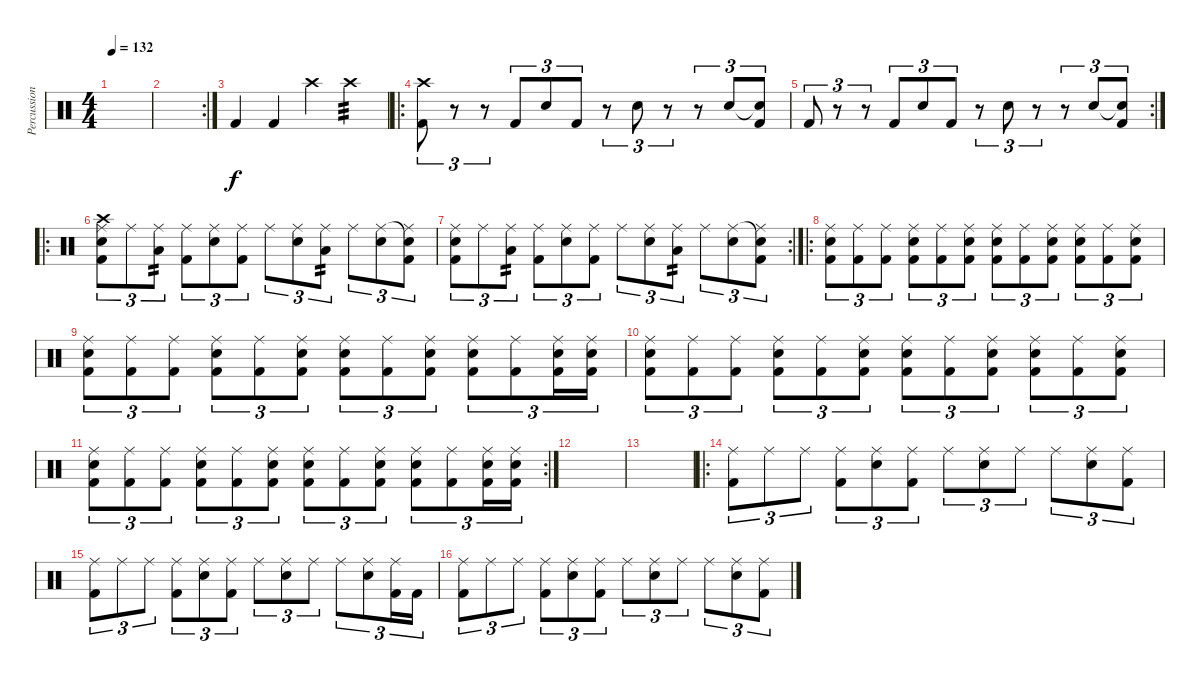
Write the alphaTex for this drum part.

\track ("Percussions" "Percussion") {instrument percussion}
\staff {score}
\articulation defaults
\ts (4 4)
\tempo 132
\clef neutral
\ks c
|
\rc 2
|
"Kick (hit) 2".4 "Kick (hit) 2".4 "Crash high (hit)".4 "Crash high (hit)".4{tp 3} |
\ro
("Crash high (hit)" "Kick (hit) 2").8{tu (3 2)} r.8{tu (3 2)} r.8{tu (3 2)} "Kick (hit) 2".8{tu (3 2)} "Snare (hit) 2".8{tu (3 2)} "Kick (hit) 2".8{tu (3 2)} r.8{tu (3 2)} "Snare (hit) 2".8{tu (3 2)} r.8{tu (3 2)} r.8{tu (3 2)} "Snare (hit) 2".8{tu (3 2)} ("Snare (hit)"{t} "Kick (hit) 2").8{tu (3 2)} |
\rc 2 "Kick (hit) 2".8{tu (3 2)}
r.8{tu (3 2)} r.8{tu (3 2)} "Kick (hit) 2".8{tu (3 2)} "Snare (hit) 2".8{tu (3 2)} "Kick (hit) 2".8{tu (3 2)} r.8{tu (3 2)} "Snare (hit) 2".8{tu (3 2)} r.8{tu (3 2)} r.8{tu (3 2)} "Snare (hit) 2".8{tu (3 2)} ("Snare (hit)"{t} "Kick (hit) 2").8{tu (3 2)} |
\ro
("Crash high (hit)" "Ride (middle)" "Snare (hit) 2" "Kick (hit) 2").8{tu (3 2)} "Ride (middle)".8{tu (3 2)} ("Ride (middle)" "Low Floor Tom (hit)").8{tu (3 2) tp 2} ("Ride (middle)" "Kick (hit) 2").8{tu (3 2)} ("Ride (middle)" "Snare (hit) 2").8{tu (3 2)} ("Ride (middle)" "Kick (hit) 2").8{tu (3 2)} "Ride (middle)".8{tu (3 2)} ("Ride (middle)" "Snare (hit) 2").8{tu (3 2)} ("Ride (middle)" "Low Floor Tom (hit)").8{tu (3 2) tp 2} "Ride (middle)".8{tu (3 2)} ("Ride (middle)" "Snare (hit) 2").8{tu (3 2)} ("Snare (hit)"{t} "Ride (middle)" "Kick (hit) 2").8{tu (3 2)} |
\rc 2
("Ride (middle)" "Snare (hit) 2" "Kick (hit) 2").8{tu (3 2)} "Ride (middle)".8{tu (3 2)} ("Ride (middle)" "Low Floor Tom (hit)").8{tu (3 2) tp 2} ("Ride (middle)" "Kick (hit) 2").8{tu (3 2)} ("Ride (middle)" "Snare (hit) 2").8{tu (3 2)} ("Ride (middle)" "Kick (hit) 2").8{tu (3 2)} "Ride (middle)".8{tu (3 2)} ("Ride (middle)" "Snare (hit) 2").8{tu (3 2)} ("Ride (middle)" "Low Floor Tom (hit)").8{tu (3 2) tp 2} "Ride (middle)".8{tu (3 2)} ("Ride (middle)" "Snare (hit) 2").8{tu (3 2)} ("Snare (hit)"{t} "Ride (middle)" "Kick (hit) 2").8{tu (3 2)} |
\ro
("Ride (middle)" "Snare (hit) 2" "Kick (hit) 2").8{tu (3 2)} ("Ride (middle)" "Kick (hit) 2").8{tu (3 2)} ("Ride (middle)" "Kick (hit) 2").8{tu (3 2)} ("Ride (middle)" "Snare (hit) 2" "Kick (hit) 2").8{tu (3 2)} ("Ride (middle)" "Kick (hit) 2").8{tu (3 2)} ("Ride (middle)" "Snare (hit) 2" "Kick (hit) 2").8{tu (3 2)} ("Ride (middle)" "Snare (hit) 2" "Kick (hit) 2").8{tu (3 2)} ("Ride (middle)" "Kick (hit) 2").8{tu (3 2)} ("Ride (middle)" "Snare (hit) 2" "Kick (hit) 2").8{tu (3 2)} ("Ride (middle)" "Snare (hit) 2" "Kick (hit) 2").8{tu (3 2)} ("Ride (middle)" "Kick (hit) 2").8{tu (3 2)} ("Ride (middle)" "Snare (hit) 2" "Kick (hit) 2").8{tu (3 2)} |
("Ride (middle)" "Snare (hit) 2" "Kick (hit) 2").8{tu (3 2)} ("Ride (middle)" "Kick (hit) 2").8{tu (3 2)} ("Ride (middle)" "Kick (hit) 2").8{tu (3 2)} ("Ride (middle)" "Snare (hit) 2" "Kick (hit) 2").8{tu (3 2)} ("Ride (middle)" "Kick (hit) 2").8{tu (3 2)} ("Ride (middle)" "Snare (hit) 2" "Kick (hit) 2").8{tu (3 2)} ("Ride (middle)" "Snare (hit) 2" "Kick (hit) 2").8{tu (3 2)} ("Ride (middle)" "Kick (hit) 2").8{tu (3 2)} ("Ride (middle)" "Snare (hit) 2" "Kick (hit) 2").8{tu (3 2)} ("Ride (middle)" "Snare (hit) 2" "Kick (hit) 2").8{tu (3 2)} ("Ride (middle)" "Kick (hit) 2").8{tu (3 2)} ("Ride (middle)" "Snare (hit) 2" "Kick (hit) 2").16{tu (3 2)} ("Ride (middle)" "Snare (hit) 2" "Kick (hit) 2").16{tu (3 2)} |
("Ride (middle)" "Snare (hit) 2" "Kick (hit) 2").8{tu (3 2)} ("Ride (middle)" "Kick (hit) 2").8{tu (3 2)} ("Ride (middle)" "Kick (hit) 2").8{tu (3 2)} ("Ride (middle)" "Snare (hit) 2" "Kick (hit) 2").8{tu (3 2)} ("Ride (middle)" "Kick (hit) 2").8{tu (3 2)} ("Ride (middle)" "Snare (hit) 2" "Kick (hit) 2").8{tu (3 2)} ("Ride (middle)" "Snare (hit) 2" "Kick (hit) 2").8{tu (3 2)} ("Ride (middle)" "Kick (hit) 2").8{tu (3 2)} ("Ride (middle)" "Snare (hit) 2" "Kick (hit) 2").8{tu (3 2)} ("Ride (middle)" "Snare (hit) 2" "Kick (hit) 2").8{tu (3 2)} ("Ride (middle)" "Kick (hit) 2").8{tu (3 2)} ("Ride (middle)" "Snare (hit) 2" "Kick (hit) 2").8{tu (3 2)} |
\rc 2
("Ride (middle)" "Snare (hit) 2" "Kick (hit) 2").8{tu (3 2)} ("Ride (middle)" "Kick (hit) 2").8{tu (3 2)} ("Ride (middle)" "Kick (hit) 2").8{tu (3 2)} ("Ride (middle)" "Snare (hit) 2" "Kick (hit) 2").8{tu (3 2)} ("Ride (middle)" "Kick (hit) 2").8{tu (3 2)} ("Ride (middle)" "Snare (hit) 2" "Kick (hit) 2").8{tu (3 2)} ("Ride (middle)" "Snare (hit) 2" "Kick (hit) 2").8{tu (3 2)} ("Ride (middle)" "Kick (hit) 2").8{tu (3 2)} ("Ride (middle)" "Snare (hit) 2" "Kick (hit) 2").8{tu (3 2)} ("Ride (middle)" "Snare (hit) 2" "Kick (hit) 2").8{tu (3 2)} ("Ride (middle)" "Kick (hit) 2").8{tu (3 2)} ("Ride (middle)" "Snare (hit) 2" "Kick (hit) 2").16{tu (3 2)} ("Ride (middle)" "Snare (hit) 2" "Kick (hit) 2").16{tu (3 2)} |
|
|
\ro
("Ride (middle)" "Kick (hit) 2").8{tu (3 2)} "Ride (middle)".8{tu (3 2)} "Ride (middle)".8{tu (3 2)} ("Ride (middle)" "Kick (hit) 2").8{tu (3 2)} ("Ride (middle)" "Snare (hit) 2").8{tu (3 2)} ("Ride (middle)" "Kick (hit) 2").8{tu (3 2)} "Ride (middle)".8{tu (3 2)} ("Ride (middle)" "Snare (hit) 2").8{tu (3 2)} "Ride (middle)".8{tu (3 2)} "Ride (middle)".8{tu (3 2)} ("Ride (middle)" "Snare (hit) 2").8{tu (3 2)} ("Ride (middle)" "Kick (hit) 2").8{tu (3 2)} |
("Ride (middle)" "Kick (hit) 2").8{tu (3 2)} "Ride (middle)".8{tu (3 2)} "Ride (middle)".8{tu (3 2)} ("Ride (middle)" "Kick (hit) 2").8{tu (3 2)} ("Ride (middle)" "Snare (hit) 2").8{tu (3 2)} ("Ride (middle)" "Kick (hit) 2").8{tu (3 2)} "Ride (middle)".8{tu (3 2)} ("Ride (middle)" "Snare (hit) 2").8{tu (3 2)} "Ride (middle)".8{tu (3 2)} "Ride (middle)".8{tu (3 2)} ("Ride (middle)" "Snare (hit) 2").8{tu (3 2)} ("Ride (middle)" "Kick (hit) 2").16{tu (3 2)} "Kick (hit) 2".16{tu (3 2)} |
("Ride (middle)" "Kick (hit) 2").8{tu (3 2)} "Ride (middle)".8{tu (3 2)} "Ride (middle)".8{tu (3 2)} ("Ride (middle)" "Kick (hit) 2").8{tu (3 2)} ("Ride (middle)" "Snare (hit) 2").8{tu (3 2)} ("Ride (middle)" "Kick (hit) 2").8{tu (3 2)} "Ride (middle)".8{tu (3 2)} ("Ride (middle)" "Snare (hit) 2").8{tu (3 2)} "Ride (middle)".8{tu (3 2)} "Ride (middle)".8{tu (3 2)} ("Ride (middle)" "Snare (hit) 2").8{tu (3 2)} ("Ride (middle)" "Kick (hit) 2").8{tu (3 2)}
